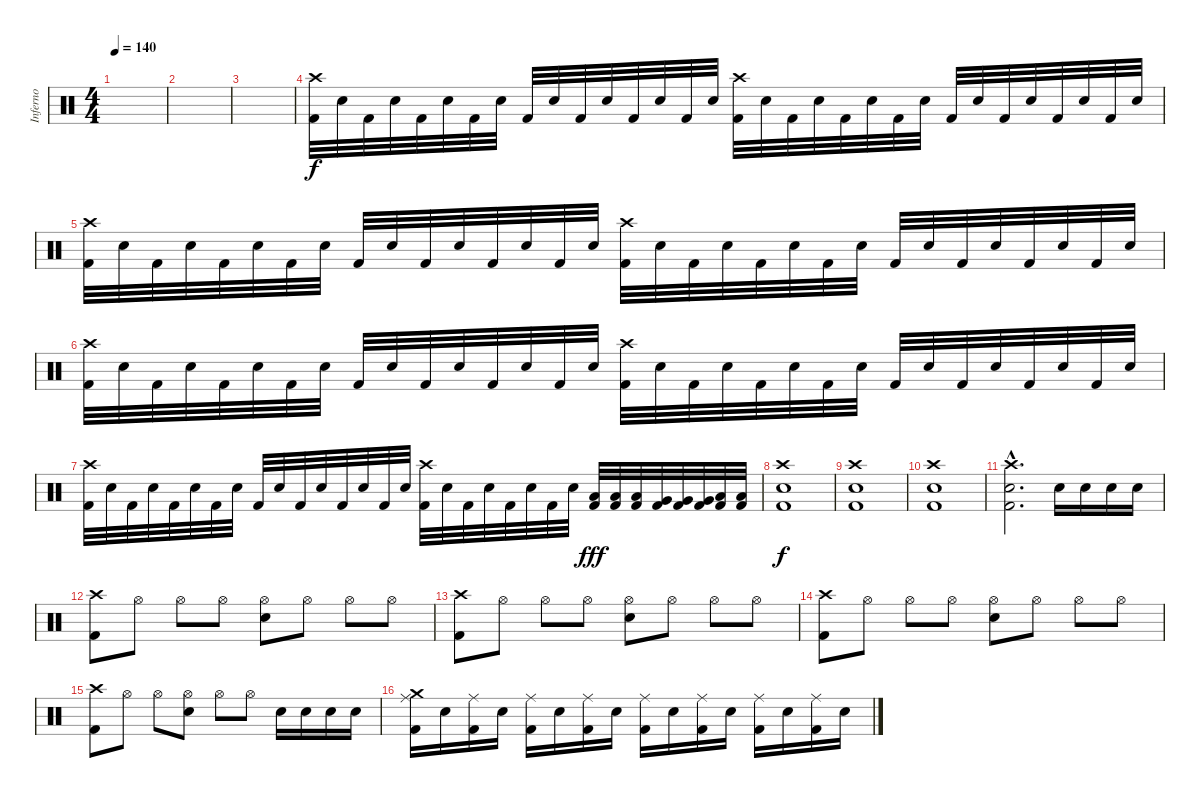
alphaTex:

\track ("Inferno" "Inferno") {instrument percussion}
\staff {score}
\articulation defaults
\ts (4 4)
\tempo 140
\clef neutral
\ks c
|
|
|
("Crash high (hit)" "Kick (hit) 2").32 "Electric Snare (hit)".32 "Kick (hit) 2".32 "Electric Snare (hit)".32 "Kick (hit) 2".32 "Electric Snare (hit)".32 "Kick (hit) 2".32 "Electric Snare (hit)".32 "Kick (hit) 2".32 "Electric Snare (hit)".32 "Kick (hit) 2".32 "Electric Snare (hit)".32 "Kick (hit) 2".32 "Electric Snare (hit)".32 "Kick (hit) 2".32 "Electric Snare (hit)".32 ("Crash high (hit)" "Kick (hit) 2").32 "Electric Snare (hit)".32 "Kick (hit) 2".32 "Electric Snare (hit)".32 "Kick (hit) 2".32 "Electric Snare (hit)".32 "Kick (hit) 2".32 "Electric Snare (hit)".32 "Kick (hit) 2".32 "Electric Snare (hit)".32 "Kick (hit) 2".32 "Electric Snare (hit)".32 "Kick (hit) 2".32 "Electric Snare (hit)".32 "Kick (hit) 2".32 "Electric Snare (hit)".32 |
("Crash high (hit)" "Kick (hit) 2").32 "Electric Snare (hit)".32 "Kick (hit) 2".32 "Electric Snare (hit)".32 "Kick (hit) 2".32 "Electric Snare (hit)".32 "Kick (hit) 2".32 "Electric Snare (hit)".32 "Kick (hit) 2".32 "Electric Snare (hit)".32 "Kick (hit) 2".32 "Electric Snare (hit)".32 "Kick (hit) 2".32 "Electric Snare (hit)".32 "Kick (hit) 2".32 "Electric Snare (hit)".32 ("Crash high (hit)" "Kick (hit) 2").32 "Electric Snare (hit)".32 "Kick (hit) 2".32 "Electric Snare (hit)".32 "Kick (hit) 2".32 "Electric Snare (hit)".32 "Kick (hit) 2".32 "Electric Snare (hit)".32 "Kick (hit) 2".32 "Electric Snare (hit)".32 "Kick (hit) 2".32 "Electric Snare (hit)".32 "Kick (hit) 2".32 "Electric Snare (hit)".32 "Kick (hit) 2".32 "Electric Snare (hit)".32 |
("Crash high (hit)" "Kick (hit) 2").32 "Electric Snare (hit)".32 "Kick (hit) 2".32 "Electric Snare (hit)".32 "Kick (hit) 2".32 "Electric Snare (hit)".32 "Kick (hit) 2".32 "Electric Snare (hit)".32 "Kick (hit) 2".32 "Electric Snare (hit)".32 "Kick (hit) 2".32 "Electric Snare (hit)".32 "Kick (hit) 2".32 "Electric Snare (hit)".32 "Kick (hit) 2".32 "Electric Snare (hit)".32 ("Crash high (hit)" "Kick (hit) 2").32 "Electric Snare (hit)".32 "Kick (hit) 2".32 "Electric Snare (hit)".32 "Kick (hit) 2".32 "Electric Snare (hit)".32 "Kick (hit) 2".32 "Electric Snare (hit)".32 "Kick (hit) 2".32 "Electric Snare (hit)".32 "Kick (hit) 2".32 "Electric Snare (hit)".32 "Kick (hit) 2".32 "Electric Snare (hit)".32 "Kick (hit) 2".32 "Electric Snare (hit)".32 |
("Crash high (hit)" "Kick (hit) 2").32 "Electric Snare (hit)".32 "Kick (hit) 2".32 "Electric Snare (hit)".32 "Kick (hit) 2".32 "Electric Snare (hit)".32 "Kick (hit) 2".32 "Electric Snare (hit)".32 "Kick (hit) 2".32 "Electric Snare (hit)".32 "Kick (hit) 2".32 "Electric Snare (hit)".32 "Kick (hit) 2".32 "Electric Snare (hit)".32 "Kick (hit) 2".32 "Electric Snare (hit)".32 ("Crash high (hit)" "Kick (hit) 2").32 "Electric Snare (hit)".32 "Kick (hit) 2".32 "Electric Snare (hit)".32 "Kick (hit) 2".32 "Electric Snare (hit)".32 "Kick (hit) 2".32 "Electric Snare (hit)".32 ("Low Tom (hit)" "Kick (hit) 2").32{dy fff} ("Low Tom (hit)" "Kick (hit) 2").32 ("Low Tom (hit)" "Kick (hit) 2").32 ("Very Low Tom (hit)" "Kick (hit) 2").32 ("Very Low Tom (hit)" "Kick (hit) 2").32 ("Very Low Tom (hit)" "Kick (hit) 2").32 ("Low Floor Tom (hit)" "Kick (hit) 2").32 ("Low Floor Tom (hit)" "Kick (hit) 2").32 |
("Crash high (hit)" "Electric Snare (hit)" "Kick (hit) 2").1{dy f} |
("Crash high (hit)" "Electric Snare (hit)" "Kick (hit) 2").1 |
("Crash high (hit)" "Electric Snare (hit)" "Kick (hit) 2").1 |
("Crash high (hit)"{hac} "Electric Snare (hit)"{hac} "Kick (hit) 2"{hac}).2{d} "Electric Snare (hit)".16 "Electric Snare (hit)".16 "Electric Snare (hit)".16 "Electric Snare (hit)".16 |
("Crash high (hit)" "Kick (hit) 2").8 "Hi-Hat (open)".8 "Hi-Hat (open)".8 "Hi-Hat (open)".8 ("Hi-Hat (open)" "Electric Snare (hit)").8 "Hi-Hat (open)".8 "Hi-Hat (open)".8 "Hi-Hat (open)".8 |
("Crash high (hit)" "Kick (hit) 2").8 "Hi-Hat (open)".8 "Hi-Hat (open)".8 "Hi-Hat (open)".8 ("Hi-Hat (open)" "Electric Snare (hit)").8 "Hi-Hat (open)".8 "Hi-Hat (open)".8 "Hi-Hat (open)".8 |
("Crash high (hit)" "Kick (hit) 2").8 "Hi-Hat (open)".8 "Hi-Hat (open)".8 "Hi-Hat (open)".8 ("Hi-Hat (open)" "Electric Snare (hit)").8 "Hi-Hat (open)".8 "Hi-Hat (open)".8 "Hi-Hat (open)".8 |
("Crash high (hit)" "Kick (hit) 2").8 "Hi-Hat (open)".8 "Hi-Hat (open)".8 ("Hi-Hat (open)" "Electric Snare (hit)").8 "Hi-Hat (open)".8 "Hi-Hat (open)".8 "Electric Snare (hit)".16 "Electric Snare (hit)".16 "Electric Snare (hit)".16 "Electric Snare (hit)".16 |
("Crash medium (hit)" "Ride (middle)" "Kick (hit) 2").16 "Electric Snare (hit)".16 ("Ride (middle)" "Kick (hit) 2").16 "Electric Snare (hit)".16 ("Ride (middle)" "Kick (hit) 2").16 "Electric Snare (hit)".16 ("Ride (middle)" "Kick (hit) 2").16 "Electric Snare (hit)".16 ("Ride (middle)" "Kick (hit) 2").16 "Electric Snare (hit)".16 ("Ride (middle)" "Kick (hit) 2").16 "Electric Snare (hit)".16 ("Ride (middle)" "Kick (hit) 2").16 "Electric Snare (hit)".16 ("Ride (middle)" "Kick (hit) 2").16 "Electric Snare (hit)".16
